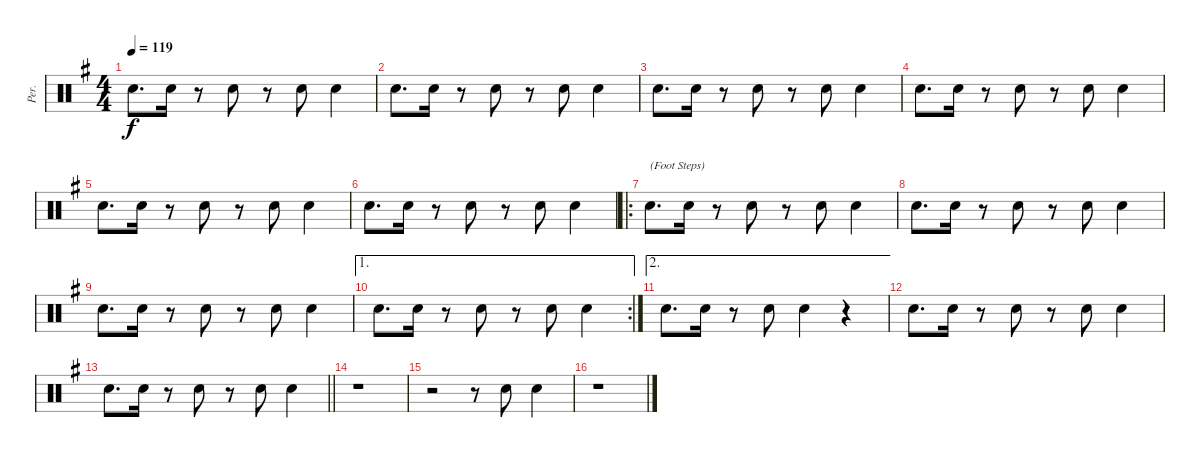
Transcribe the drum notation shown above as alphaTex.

\track ("Per." "Per.") {instrument percussion}
\staff {score}
\articulation defaults
\ts (4 4)
\tempo 119
\clef neutral
\ks eminor "Hand Clap (hit)".8{d dy f} "Hand Clap (hit)".16
r.8 "Hand Clap (hit)".8 r.8 "Hand Clap (hit)".8 "Hand Clap (hit)".4 |
"Hand Clap (hit)".8{d} "Hand Clap (hit)".16 r.8 "Hand Clap (hit)".8 r.8 "Hand Clap (hit)".8 "Hand Clap (hit)".4 |
"Hand Clap (hit)".8{d} "Hand Clap (hit)".16 r.8 "Hand Clap (hit)".8 r.8 "Hand Clap (hit)".8 "Hand Clap (hit)".4 |
"Hand Clap (hit)".8{d} "Hand Clap (hit)".16 r.8 "Hand Clap (hit)".8 r.8 "Hand Clap (hit)".8 "Hand Clap (hit)".4 |
"Hand Clap (hit)".8{d} "Hand Clap (hit)".16 r.8 "Hand Clap (hit)".8 r.8 "Hand Clap (hit)".8 "Hand Clap (hit)".4 |
"Hand Clap (hit)".8{d} "Hand Clap (hit)".16 r.8 "Hand Clap (hit)".8 r.8 "Hand Clap (hit)".8 "Hand Clap (hit)".4 |
\ro "Hand Clap (hit)".8{d txt "(Foot Steps)"} "Hand Clap (hit)".16
r.8 "Hand Clap (hit)".8 r.8 "Hand Clap (hit)".8 "Hand Clap (hit)".4 |
"Hand Clap (hit)".8{d} "Hand Clap (hit)".16 r.8 "Hand Clap (hit)".8 r.8 "Hand Clap (hit)".8 "Hand Clap (hit)".4 |
"Hand Clap (hit)".8{d} "Hand Clap (hit)".16 r.8 "Hand Clap (hit)".8 r.8 "Hand Clap (hit)".8 "Hand Clap (hit)".4 |
\ae 1
\rc 2 "Hand Clap (hit)".8{d} "Hand Clap (hit)".16
r.8 "Hand Clap (hit)".8 r.8 "Hand Clap (hit)".8 "Hand Clap (hit)".4 |
\ae 2 "Hand Clap (hit)".8{d} "Hand Clap (hit)".16
r.8 "Hand Clap (hit)".8 "Hand Clap (hit)".4 r.4 |
"Hand Clap (hit)".8{d} "Hand Clap (hit)".16 r.8 "Hand Clap (hit)".8 r.8 "Hand Clap (hit)".8 "Hand Clap (hit)".4 |
\barLineRight lightlight "Hand Clap (hit)".8{d} "Hand Clap (hit)".16
r.8 "Hand Clap (hit)".8 r.8 "Hand Clap (hit)".8 "Hand Clap (hit)".4 |
r.1 |
r.2 r.8 "Hand Clap (hit)".8 "Hand Clap (hit)".4 |
r.1
